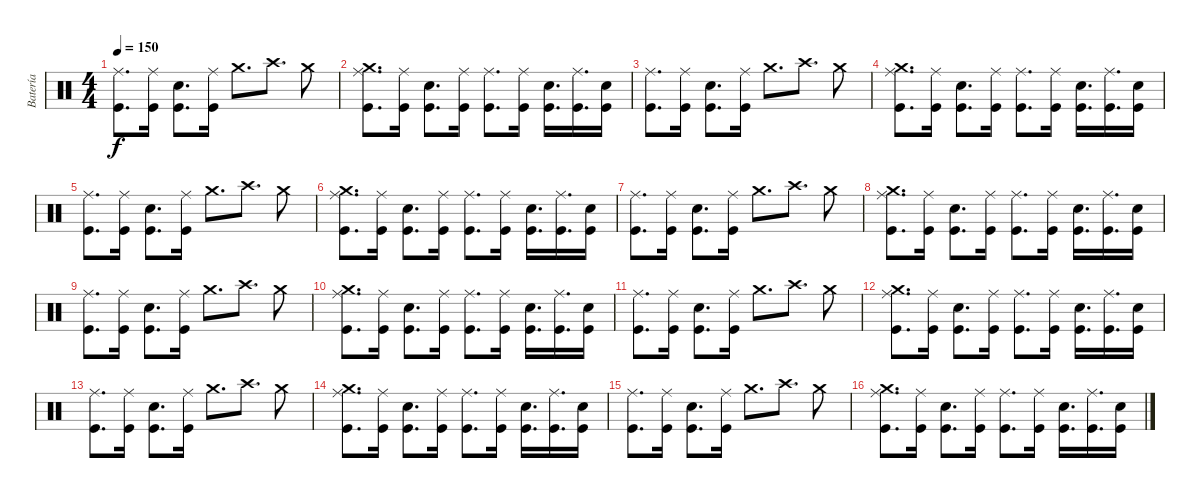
\track ("Batería" "Batería") {instrument percussion}
\staff {score}
\articulation defaults
\ts (4 4)
\tempo 150
\clef neutral
\ks c
("Ride (middle)" "Kick (hit)").8{d dy f} ("Ride (middle)" "Kick (hit)").16 ("Electric Snare (hit)" "Kick (hit)").8{d} ("Ride (middle)" "Kick (hit)").16 "Crash medium (hit)".8{d} "Crash high (hit)".8{d} "Crash medium (hit)".8 |
("Ride (middle)" "Crash medium (hit)" "Kick (hit)").8{d} ("Ride (middle)" "Kick (hit)").16 ("Electric Snare (hit)" "Kick (hit)").8{d} ("Ride (middle)" "Kick (hit)").16 ("Ride (middle)" "Kick (hit)").8{d} ("Ride (middle)" "Kick (hit)").16 ("Electric Snare (hit)" "Kick (hit)").16{d} ("Ride (middle)" "Kick (hit)").16{d} ("Electric Snare (hit)" "Kick (hit)").16 |
("Ride (middle)" "Kick (hit)").8{d} ("Ride (middle)" "Kick (hit)").16 ("Electric Snare (hit)" "Kick (hit)").8{d} ("Ride (middle)" "Kick (hit)").16 "Crash medium (hit)".8{d} "Crash high (hit)".8{d} "Crash medium (hit)".8 |
("Ride (middle)" "Crash medium (hit)" "Kick (hit)").8{d} ("Ride (middle)" "Kick (hit)").16 ("Electric Snare (hit)" "Kick (hit)").8{d} ("Ride (middle)" "Kick (hit)").16 ("Ride (middle)" "Kick (hit)").8{d} ("Ride (middle)" "Kick (hit)").16 ("Electric Snare (hit)" "Kick (hit)").16{d} ("Ride (middle)" "Kick (hit)").16{d} ("Electric Snare (hit)" "Kick (hit)").16 |
("Ride (middle)" "Kick (hit)").8{d} ("Ride (middle)" "Kick (hit)").16 ("Electric Snare (hit)" "Kick (hit)").8{d} ("Ride (middle)" "Kick (hit)").16 "Crash medium (hit)".8{d} "Crash high (hit)".8{d} "Crash medium (hit)".8 |
("Ride (middle)" "Crash medium (hit)" "Kick (hit)").8{d} ("Ride (middle)" "Kick (hit)").16 ("Electric Snare (hit)" "Kick (hit)").8{d} ("Ride (middle)" "Kick (hit)").16 ("Ride (middle)" "Kick (hit)").8{d} ("Ride (middle)" "Kick (hit)").16 ("Electric Snare (hit)" "Kick (hit)").16{d} ("Ride (middle)" "Kick (hit)").16{d} ("Electric Snare (hit)" "Kick (hit)").16 |
("Ride (middle)" "Kick (hit)").8{d} ("Ride (middle)" "Kick (hit)").16 ("Electric Snare (hit)" "Kick (hit)").8{d} ("Ride (middle)" "Kick (hit)").16 "Crash medium (hit)".8{d} "Crash high (hit)".8{d} "Crash medium (hit)".8 |
("Ride (middle)" "Crash medium (hit)" "Kick (hit)").8{d} ("Ride (middle)" "Kick (hit)").16 ("Electric Snare (hit)" "Kick (hit)").8{d} ("Ride (middle)" "Kick (hit)").16 ("Ride (middle)" "Kick (hit)").8{d} ("Ride (middle)" "Kick (hit)").16 ("Electric Snare (hit)" "Kick (hit)").16{d} ("Ride (middle)" "Kick (hit)").16{d} ("Electric Snare (hit)" "Kick (hit)").16 |
("Ride (middle)" "Kick (hit)").8{d} ("Ride (middle)" "Kick (hit)").16 ("Electric Snare (hit)" "Kick (hit)").8{d} ("Ride (middle)" "Kick (hit)").16 "Crash medium (hit)".8{d} "Crash high (hit)".8{d} "Crash medium (hit)".8 |
("Ride (middle)" "Crash medium (hit)" "Kick (hit)").8{d} ("Ride (middle)" "Kick (hit)").16 ("Electric Snare (hit)" "Kick (hit)").8{d} ("Ride (middle)" "Kick (hit)").16 ("Ride (middle)" "Kick (hit)").8{d} ("Ride (middle)" "Kick (hit)").16 ("Electric Snare (hit)" "Kick (hit)").16{d} ("Ride (middle)" "Kick (hit)").16{d} ("Electric Snare (hit)" "Kick (hit)").16 |
("Ride (middle)" "Kick (hit)").8{d} ("Ride (middle)" "Kick (hit)").16 ("Electric Snare (hit)" "Kick (hit)").8{d} ("Ride (middle)" "Kick (hit)").16 "Crash medium (hit)".8{d} "Crash high (hit)".8{d} "Crash medium (hit)".8 |
("Ride (middle)" "Crash medium (hit)" "Kick (hit)").8{d} ("Ride (middle)" "Kick (hit)").16 ("Electric Snare (hit)" "Kick (hit)").8{d} ("Ride (middle)" "Kick (hit)").16 ("Ride (middle)" "Kick (hit)").8{d} ("Ride (middle)" "Kick (hit)").16 ("Electric Snare (hit)" "Kick (hit)").16{d} ("Ride (middle)" "Kick (hit)").16{d} ("Electric Snare (hit)" "Kick (hit)").16 |
("Ride (middle)" "Kick (hit)").8{d} ("Ride (middle)" "Kick (hit)").16 ("Electric Snare (hit)" "Kick (hit)").8{d} ("Ride (middle)" "Kick (hit)").16 "Crash medium (hit)".8{d} "Crash high (hit)".8{d} "Crash medium (hit)".8 |
("Ride (middle)" "Crash medium (hit)" "Kick (hit)").8{d} ("Ride (middle)" "Kick (hit)").16 ("Electric Snare (hit)" "Kick (hit)").8{d} ("Ride (middle)" "Kick (hit)").16 ("Ride (middle)" "Kick (hit)").8{d} ("Ride (middle)" "Kick (hit)").16 ("Electric Snare (hit)" "Kick (hit)").16{d} ("Ride (middle)" "Kick (hit)").16{d} ("Electric Snare (hit)" "Kick (hit)").16 |
("Ride (middle)" "Kick (hit)").8{d} ("Ride (middle)" "Kick (hit)").16 ("Electric Snare (hit)" "Kick (hit)").8{d} ("Ride (middle)" "Kick (hit)").16 "Crash medium (hit)".8{d} "Crash high (hit)".8{d} "Crash medium (hit)".8 |
("Ride (middle)" "Crash medium (hit)" "Kick (hit)").8{d} ("Ride (middle)" "Kick (hit)").16 ("Electric Snare (hit)" "Kick (hit)").8{d} ("Ride (middle)" "Kick (hit)").16 ("Ride (middle)" "Kick (hit)").8{d} ("Ride (middle)" "Kick (hit)").16 ("Electric Snare (hit)" "Kick (hit)").16{d} ("Ride (middle)" "Kick (hit)").16{d} ("Electric Snare (hit)" "Kick (hit)").16
